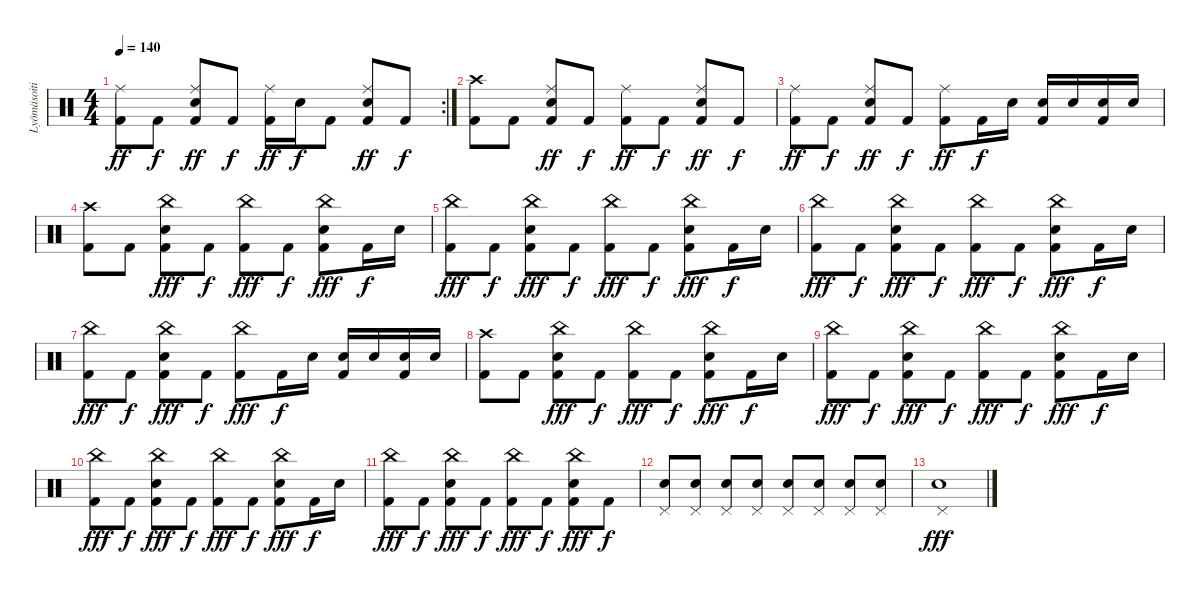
\track ("Lyömäsoitin" "Lyömäsoiti") {instrument percussion}
\staff {score}
\articulation defaults
\rc 2
\ts (4 4)
\tempo 140
\clef neutral
\ks c
("Kick (hit) 2" "Ride (middle)").8{dy ff} "Kick (hit) 2".8{dy f} ("Kick (hit) 2" "Ride (middle)" "Snare (hit) 2").8{dy ff} "Kick (hit) 2".8{dy f} ("Kick (hit) 2" "Ride (middle)").16{dy ff} "Snare (hit) 2".16{dy f} "Kick (hit) 2".8 ("Kick (hit) 2" "Ride (middle)" "Snare (hit) 2").8{dy ff} "Kick (hit) 2".8{dy f} |
("Kick (hit) 2" "Crash high (hit)").8 "Kick (hit) 2".8 ("Kick (hit) 2" "Ride (middle)" "Snare (hit) 2").8{dy ff} "Kick (hit) 2".8{dy f} ("Kick (hit) 2" "Ride (middle)").8{dy ff} "Kick (hit) 2".8{dy f} ("Kick (hit) 2" "Ride (middle)" "Snare (hit) 2").8{dy ff} "Kick (hit) 2".8{dy f} |
("Kick (hit) 2" "Ride (middle)").8{dy ff} "Kick (hit) 2".8{dy f} ("Kick (hit) 2" "Ride (middle)" "Snare (hit) 2").8{dy ff} "Kick (hit) 2".8{dy f} ("Kick (hit) 2" "Ride (middle)").8{dy ff} "Kick (hit) 2".16{dy f} "Snare (hit) 2".16 ("Kick (hit) 2" "Snare (hit) 2").16 "Snare (hit) 2".16 ("Kick (hit) 2" "Snare (hit) 2").16 "Snare (hit) 2".16 |
("Kick (hit) 2" "Crash high (hit)").8 "Kick (hit) 2".8 ("Kick (hit) 2" "China (hit)" "Snare (hit) 2").8{dy fff} "Kick (hit) 2".8{dy f} ("Kick (hit) 2" "China (hit)").8{dy fff} "Kick (hit) 2".8{dy f} ("Kick (hit) 2" "China (hit)" "Snare (hit) 2").8{dy fff} "Kick (hit) 2".16{dy f} "Snare (hit) 2".16 |
("Kick (hit) 2" "China (hit)").8{dy fff} "Kick (hit) 2".8{dy f} ("Kick (hit) 2" "China (hit)" "Snare (hit) 2").8{dy fff} "Kick (hit) 2".8{dy f} ("Kick (hit) 2" "China (hit)").8{dy fff} "Kick (hit) 2".8{dy f} ("Kick (hit) 2" "China (hit)" "Snare (hit) 2").8{dy fff} "Kick (hit) 2".16{dy f} "Snare (hit) 2".16 |
("Kick (hit) 2" "China (hit)").8{dy fff} "Kick (hit) 2".8{dy f} ("Kick (hit) 2" "China (hit)" "Snare (hit) 2").8{dy fff} "Kick (hit) 2".8{dy f} ("Kick (hit) 2" "China (hit)").8{dy fff} "Kick (hit) 2".8{dy f} ("Kick (hit) 2" "China (hit)" "Snare (hit) 2").8{dy fff} "Kick (hit) 2".16{dy f} "Snare (hit) 2".16 |
("Kick (hit) 2" "China (hit)").8{dy fff} "Kick (hit) 2".8{dy f} ("Kick (hit) 2" "China (hit)" "Snare (hit) 2").8{dy fff} "Kick (hit) 2".8{dy f} ("Kick (hit) 2" "China (hit)").8{dy fff} "Kick (hit) 2".16{dy f} "Snare (hit) 2".16 ("Kick (hit) 2" "Snare (hit) 2").16 "Snare (hit) 2".16 ("Kick (hit) 2" "Snare (hit) 2").16 "Snare (hit) 2".16 |
("Kick (hit) 2" "Crash high (hit)").8 "Kick (hit) 2".8 ("Kick (hit) 2" "China (hit)" "Snare (hit) 2").8{dy fff} "Kick (hit) 2".8{dy f} ("Kick (hit) 2" "China (hit)").8{dy fff} "Kick (hit) 2".8{dy f} ("Kick (hit) 2" "China (hit)" "Snare (hit) 2").8{dy fff} "Kick (hit) 2".16{dy f} "Snare (hit) 2".16 |
("Kick (hit) 2" "China (hit)").8{dy fff} "Kick (hit) 2".8{dy f} ("Kick (hit) 2" "China (hit)" "Snare (hit) 2").8{dy fff} "Kick (hit) 2".8{dy f} ("Kick (hit) 2" "China (hit)").8{dy fff} "Kick (hit) 2".8{dy f} ("Kick (hit) 2" "China (hit)" "Snare (hit) 2").8{dy fff} "Kick (hit) 2".16{dy f} "Snare (hit) 2".16 |
("Kick (hit) 2" "China (hit)").8{dy fff} "Kick (hit) 2".8{dy f} ("Kick (hit) 2" "China (hit)" "Snare (hit) 2").8{dy fff} "Kick (hit) 2".8{dy f} ("Kick (hit) 2" "China (hit)").8{dy fff} "Kick (hit) 2".8{dy f} ("Kick (hit) 2" "China (hit)" "Snare (hit) 2").8{dy fff} "Kick (hit) 2".16{dy f} "Snare (hit) 2".16 |
("Kick (hit) 2" "China (hit)").8{dy fff} "Kick (hit) 2".8{dy f} ("Kick (hit) 2" "China (hit)" "Snare (hit) 2").8{dy fff} "Kick (hit) 2".8{dy f} ("Kick (hit) 2" "China (hit)").8{dy fff} "Kick (hit) 2".8{dy f} ("Kick (hit) 2" "China (hit)" "Snare (hit) 2").8{dy fff} "Kick (hit) 2".8{dy f} |
("Pedal Hi-Hat (hit)" "Snare (hit) 2").8 ("Pedal Hi-Hat (hit)" "Snare (hit) 2").8 ("Pedal Hi-Hat (hit)" "Snare (hit) 2").8 ("Pedal Hi-Hat (hit)" "Snare (hit) 2").8 ("Pedal Hi-Hat (hit)" "Snare (hit) 2").8 ("Pedal Hi-Hat (hit)" "Snare (hit) 2").8 ("Pedal Hi-Hat (hit)" "Snare (hit) 2").8 ("Pedal Hi-Hat (hit)" "Snare (hit) 2").8 |
("Pedal Hi-Hat (hit)" "Snare (hit) 2").1{dy fff}
